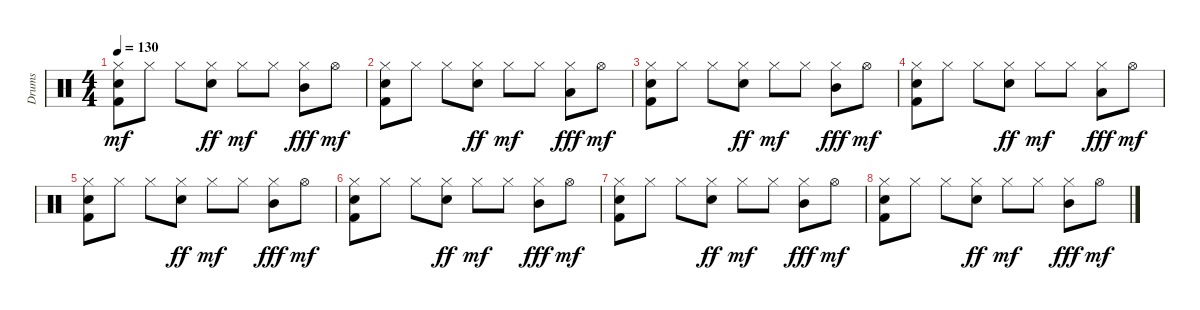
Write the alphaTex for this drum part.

\track ("Drums" "Drums") {instrument percussion}
\staff {score}
\articulation defaults
\ts (4 4)
\tempo 130
\clef neutral
\ks c
("Hi-Hat (closed)" "Electric Snare (hit)" "Kick (hit) 2").8{dy mf} "Hi-Hat (closed)".8 "Hi-Hat (closed)".8 ("Hi-Hat (closed)" "Electric Snare (hit)").8{dy ff} "Hi-Hat (closed)".8{dy mf} "Hi-Hat (closed)".8 ("Hi-Hat (closed)" "Mid Tom (hit)").8{dy fff} "Hi-Hat (open)".8{dy mf} |
("Hi-Hat (closed)" "Electric Snare (hit)" "Kick (hit) 2").8 "Hi-Hat (closed)".8 "Hi-Hat (closed)".8 ("Hi-Hat (closed)" "Electric Snare (hit)").8{dy ff} "Hi-Hat (closed)".8{dy mf} "Hi-Hat (closed)".8 ("Hi-Hat (closed)" "Low Tom (hit)").8{dy fff} "Hi-Hat (open)".8{dy mf} |
("Hi-Hat (closed)" "Electric Snare (hit)" "Kick (hit) 2").8 "Hi-Hat (closed)".8 "Hi-Hat (closed)".8 ("Hi-Hat (closed)" "Electric Snare (hit)").8{dy ff} "Hi-Hat (closed)".8{dy mf} "Hi-Hat (closed)".8 ("Hi-Hat (closed)" "Mid Tom (hit)").8{dy fff} "Hi-Hat (open)".8{dy mf} |
("Hi-Hat (closed)" "Electric Snare (hit)" "Kick (hit) 2").8{volume 10} "Hi-Hat (closed)".8 "Hi-Hat (closed)".8 ("Hi-Hat (closed)" "Electric Snare (hit)").8{dy ff} "Hi-Hat (closed)".8{dy mf} "Hi-Hat (closed)".8 ("Hi-Hat (closed)" "Low Tom (hit)").8{dy fff} "Hi-Hat (open)".8{dy mf} |
("Hi-Hat (closed)" "Electric Snare (hit)" "Kick (hit) 2").8{volume 8} "Hi-Hat (closed)".8 "Hi-Hat (closed)".8 ("Hi-Hat (closed)" "Electric Snare (hit)").8{dy ff} "Hi-Hat (closed)".8{dy mf} "Hi-Hat (closed)".8 ("Hi-Hat (closed)" "Mid Tom (hit)").8{dy fff} "Hi-Hat (open)".8{dy mf} |
("Hi-Hat (closed)" "Electric Snare (hit)" "Kick (hit) 2").8{volume 6} "Hi-Hat (closed)".8 "Hi-Hat (closed)".8 ("Hi-Hat (closed)" "Electric Snare (hit)").8{dy ff} "Hi-Hat (closed)".8{dy mf} "Hi-Hat (closed)".8 ("Hi-Hat (closed)" "Mid Tom (hit)").8{dy fff} "Hi-Hat (open)".8{dy mf} |
("Hi-Hat (closed)" "Electric Snare (hit)" "Kick (hit) 2").8{volume 4} "Hi-Hat (closed)".8 "Hi-Hat (closed)".8 ("Hi-Hat (closed)" "Electric Snare (hit)").8{dy ff} "Hi-Hat (closed)".8{dy mf} "Hi-Hat (closed)".8 ("Hi-Hat (closed)" "Mid Tom (hit)").8{dy fff} "Hi-Hat (open)".8{dy mf} |
("Hi-Hat (closed)" "Electric Snare (hit)" "Kick (hit) 2").8{volume 2} "Hi-Hat (closed)".8 "Hi-Hat (closed)".8 ("Hi-Hat (closed)" "Electric Snare (hit)").8{dy ff} "Hi-Hat (closed)".8{dy mf} "Hi-Hat (closed)".8 ("Hi-Hat (closed)" "Mid Tom (hit)").8{dy fff} "Hi-Hat (open)".8{dy mf}
